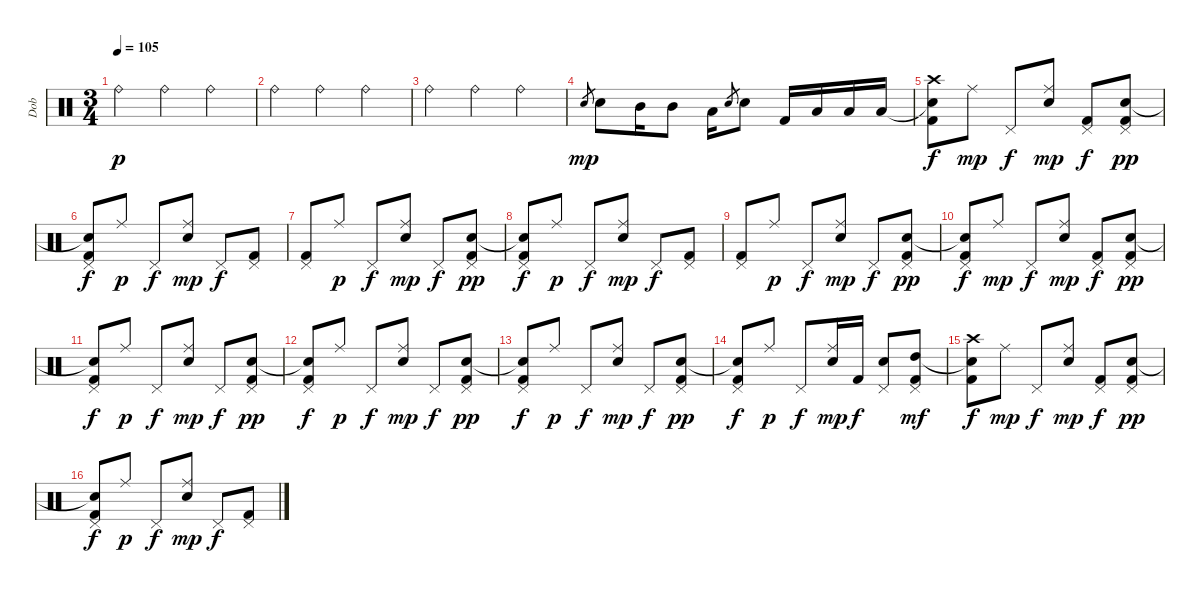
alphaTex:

\track ("Dob" "Dob") {instrument percussion}
\staff {score}
\articulation defaults
\ts (3 4)
\tempo 105
\clef neutral
\ks c "Ride (bell)".4{dy p} "Ride (bell)".4 "Ride (bell)".4
|
"Ride (bell)".4 "Ride (bell)".4 "Ride (bell)".4 |
"Ride (bell)".4 "Ride (bell)".4 "Ride (bell)".4 |
"Electric Snare (hit)".8{gr dy mp} "Electric Snare (hit)".8 "Mid Tom (hit)".16 "Mid Tom (hit)".8 "Low Tom (hit)".16 "Electric Snare (hit)".8{gr} "Electric Snare (hit)".8 "Kick (hit) 2".16 "Low Tom (hit)".16 "Low Tom (hit)".16 "Low Tom (hit)".16 |
("Snare (hit)"{t} "Kick (hit) 2" "Crash high (hit)").8{dy f} "Ride (middle)".8{dy mp} "Pedal Hi-Hat (hit)".8{dy f} ("Electric Snare (hit)" "Ride (middle)").8{dy mp} ("Kick (hit) 2" "Pedal Hi-Hat (hit)").8{dy f} ("Electric Snare (hit)"{tr (40 32)} "Kick (hit) 2" "Pedal Hi-Hat (hit)").8{dy pp} |
("Snare (hit)"{t} "Kick (hit) 2" "Pedal Hi-Hat (hit)").8{dy f} "Ride (middle)".8{dy p} "Pedal Hi-Hat (hit)".8{dy f} ("Electric Snare (hit)" "Ride (middle)").8{dy mp} "Pedal Hi-Hat (hit)".8{dy f} ("Kick (hit) 2" "Pedal Hi-Hat (hit)").8 |
("Kick (hit) 2" "Pedal Hi-Hat (hit)").8 "Ride (middle)".8{dy p} "Pedal Hi-Hat (hit)".8{dy f} ("Electric Snare (hit)" "Ride (middle)").8{dy mp} "Pedal Hi-Hat (hit)".8{dy f} ("Electric Snare (hit)"{tr (40 32)} "Kick (hit) 2" "Pedal Hi-Hat (hit)").8{dy pp} |
("Snare (hit)"{t} "Kick (hit) 2" "Pedal Hi-Hat (hit)").8{dy f} "Ride (middle)".8{dy p} "Pedal Hi-Hat (hit)".8{dy f} ("Electric Snare (hit)" "Ride (middle)").8{dy mp} "Pedal Hi-Hat (hit)".8{dy f} ("Kick (hit) 2" "Pedal Hi-Hat (hit)").8 |
("Kick (hit) 2" "Pedal Hi-Hat (hit)").8 "Ride (middle)".8{dy p} "Pedal Hi-Hat (hit)".8{dy f} ("Electric Snare (hit)" "Ride (middle)").8{dy mp} "Pedal Hi-Hat (hit)".8{dy f} ("Electric Snare (hit)"{tr (40 32)} "Kick (hit) 2" "Pedal Hi-Hat (hit)").8{dy pp} |
("Snare (hit)"{t} "Kick (hit) 2" "Pedal Hi-Hat (hit)").8{dy f} "Ride (middle)".8{dy mp} "Pedal Hi-Hat (hit)".8{dy f} ("Electric Snare (hit)" "Ride (middle)").8{dy mp} ("Kick (hit) 2" "Pedal Hi-Hat (hit)").8{dy f} ("Electric Snare (hit)"{tr (40 32)} "Kick (hit) 2" "Pedal Hi-Hat (hit)").8{dy pp} |
("Snare (hit)"{t} "Kick (hit) 2" "Pedal Hi-Hat (hit)").8{dy f} "Ride (middle)".8{dy p} "Pedal Hi-Hat (hit)".8{dy f} ("Electric Snare (hit)" "Ride (middle)").8{dy mp} "Pedal Hi-Hat (hit)".8{dy f} ("Electric Snare (hit)"{tr (40 32)} "Kick (hit) 2" "Pedal Hi-Hat (hit)").8{dy pp} |
("Snare (hit)"{t} "Kick (hit) 2" "Pedal Hi-Hat (hit)").8{dy f} "Ride (middle)".8{dy p} "Pedal Hi-Hat (hit)".8{dy f} ("Electric Snare (hit)" "Ride (middle)").8{dy mp} "Pedal Hi-Hat (hit)".8{dy f} ("Electric Snare (hit)"{tr (40 32)} "Kick (hit) 2" "Pedal Hi-Hat (hit)").8{dy pp} |
("Snare (hit)"{t} "Kick (hit) 2" "Pedal Hi-Hat (hit)").8{dy f} "Ride (middle)".8{dy p} "Pedal Hi-Hat (hit)".8{dy f} ("Electric Snare (hit)" "Ride (middle)").8{dy mp} "Pedal Hi-Hat (hit)".8{dy f} ("Electric Snare (hit)"{tr (40 32)} "Kick (hit) 2" "Pedal Hi-Hat (hit)").8{dy pp} |
("Snare (hit)"{t} "Kick (hit) 2" "Pedal Hi-Hat (hit)").8{dy f} "Ride (middle)".8{dy p} "Pedal Hi-Hat (hit)".8{dy f} ("Electric Snare (hit)" "Ride (middle)").16{dy mp} "Kick (hit) 2".16{dy f} ("Electric Snare (hit)" "Pedal Hi-Hat (hit)").8 ("High Tom (hit)"{tr (48 16)} "Kick (hit) 2" "Pedal Hi-Hat (hit)").8{dy mf} |
("Snare (hit)"{t} "Kick (hit) 2" "Crash high (hit)").8{dy f} "Ride (middle)".8{dy mp} "Pedal Hi-Hat (hit)".8{dy f} ("Electric Snare (hit)" "Ride (middle)").8{dy mp} ("Kick (hit) 2" "Pedal Hi-Hat (hit)").8{dy f} ("Electric Snare (hit)"{tr (40 32)} "Kick (hit) 2" "Pedal Hi-Hat (hit)").8{dy pp} |
("Snare (hit)"{t} "Kick (hit) 2" "Pedal Hi-Hat (hit)").8{dy f} "Ride (middle)".8{dy p} "Pedal Hi-Hat (hit)".8{dy f} ("Electric Snare (hit)" "Ride (middle)").8{dy mp} "Pedal Hi-Hat (hit)".8{dy f} ("Kick (hit) 2" "Pedal Hi-Hat (hit)").8
